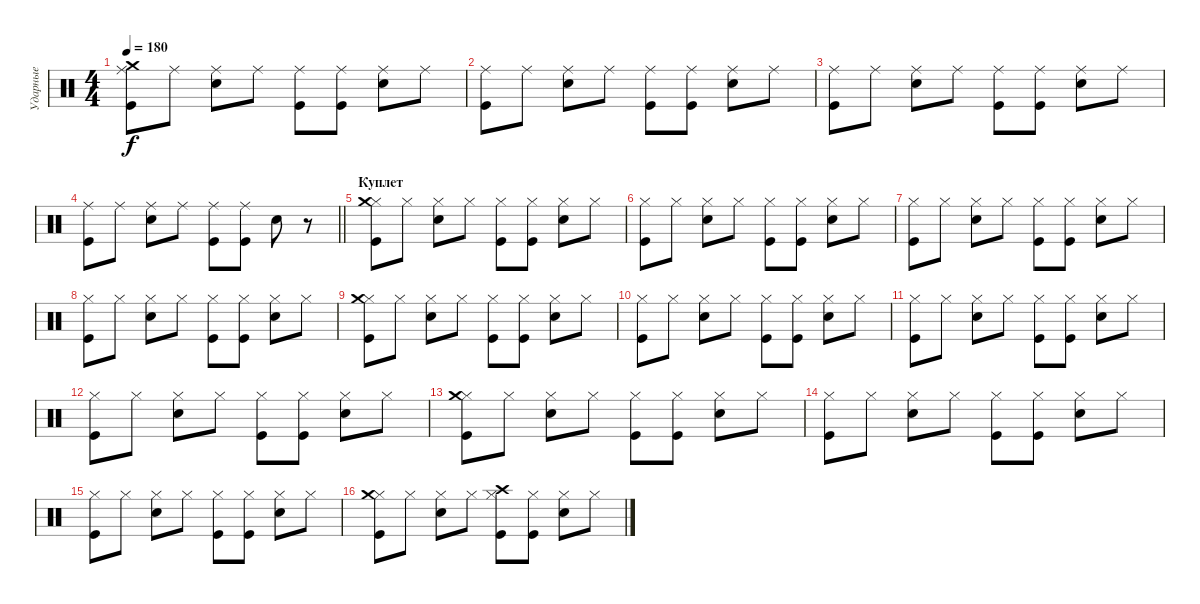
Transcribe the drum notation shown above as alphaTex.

\track ("Ударные" "Ударные") {instrument percussion}
\staff {score}
\articulation defaults
\ts (4 4)
\tempo 180
\clef neutral
\ks c
("Ride (middle)" "Kick (hit)" "Crash medium (hit)").8{dy f} "Ride (middle)".8 ("Ride (middle)" "Electric Snare (hit)").8 "Ride (middle)".8 ("Ride (middle)" "Kick (hit)").8 ("Ride (middle)" "Kick (hit)").8 ("Ride (middle)" "Electric Snare (hit)").8 "Ride (middle)".8 |
("Ride (middle)" "Kick (hit)").8 "Ride (middle)".8 ("Ride (middle)" "Electric Snare (hit)").8 "Ride (middle)".8 ("Ride (middle)" "Kick (hit)").8 ("Ride (middle)" "Kick (hit)").8 ("Ride (middle)" "Electric Snare (hit)").8 "Ride (middle)".8 |
("Ride (middle)" "Kick (hit)").8 "Ride (middle)".8 ("Ride (middle)" "Electric Snare (hit)").8 "Ride (middle)".8 ("Ride (middle)" "Kick (hit)").8 ("Ride (middle)" "Kick (hit)").8 ("Ride (middle)" "Electric Snare (hit)").8 "Ride (middle)".8 |
\barLineRight lightlight
("Ride (middle)" "Kick (hit)").8 "Ride (middle)".8 ("Ride (middle)" "Electric Snare (hit)").8 "Ride (middle)".8 ("Ride (middle)" "Kick (hit)").8 ("Ride (middle)" "Kick (hit)").8 "Electric Snare (hit)".8 r.8 |
\section ("" "Куплет")
("Hi-Hat (closed)" "Kick (hit)" "Crash medium (hit)").8 "Hi-Hat (closed)".8 ("Hi-Hat (closed)" "Electric Snare (hit)").8 "Hi-Hat (closed)".8 ("Hi-Hat (closed)" "Kick (hit)").8 ("Hi-Hat (closed)" "Kick (hit)").8 ("Hi-Hat (closed)" "Electric Snare (hit)").8 "Hi-Hat (closed)".8 |
("Hi-Hat (closed)" "Kick (hit)").8 "Hi-Hat (closed)".8 ("Hi-Hat (closed)" "Electric Snare (hit)").8 "Hi-Hat (closed)".8 ("Hi-Hat (closed)" "Kick (hit)").8 ("Hi-Hat (closed)" "Kick (hit)").8 ("Hi-Hat (closed)" "Electric Snare (hit)").8 "Hi-Hat (closed)".8 |
("Hi-Hat (closed)" "Kick (hit)").8 "Hi-Hat (closed)".8 ("Hi-Hat (closed)" "Electric Snare (hit)").8 "Hi-Hat (closed)".8 ("Hi-Hat (closed)" "Kick (hit)").8 ("Hi-Hat (closed)" "Kick (hit)").8 ("Hi-Hat (closed)" "Electric Snare (hit)").8 "Hi-Hat (closed)".8 |
("Hi-Hat (closed)" "Kick (hit)").8 "Hi-Hat (closed)".8 ("Hi-Hat (closed)" "Electric Snare (hit)").8 "Hi-Hat (closed)".8 ("Hi-Hat (closed)" "Kick (hit)").8 ("Hi-Hat (closed)" "Kick (hit)").8 ("Hi-Hat (closed)" "Electric Snare (hit)").8 "Hi-Hat (closed)".8 |
("Hi-Hat (closed)" "Kick (hit)" "Crash medium (hit)").8 "Hi-Hat (closed)".8 ("Hi-Hat (closed)" "Electric Snare (hit)").8 "Hi-Hat (closed)".8 ("Hi-Hat (closed)" "Kick (hit)").8 ("Hi-Hat (closed)" "Kick (hit)").8 ("Hi-Hat (closed)" "Electric Snare (hit)").8 "Hi-Hat (closed)".8 |
("Hi-Hat (closed)" "Kick (hit)").8 "Hi-Hat (closed)".8 ("Hi-Hat (closed)" "Electric Snare (hit)").8 "Hi-Hat (closed)".8 ("Hi-Hat (closed)" "Kick (hit)").8 ("Hi-Hat (closed)" "Kick (hit)").8 ("Hi-Hat (closed)" "Electric Snare (hit)").8 "Hi-Hat (closed)".8 |
("Hi-Hat (closed)" "Kick (hit)").8 "Hi-Hat (closed)".8 ("Hi-Hat (closed)" "Electric Snare (hit)").8 "Hi-Hat (closed)".8 ("Hi-Hat (closed)" "Kick (hit)").8 ("Hi-Hat (closed)" "Kick (hit)").8 ("Hi-Hat (closed)" "Electric Snare (hit)").8 "Hi-Hat (closed)".8 |
("Hi-Hat (closed)" "Kick (hit)").8 "Hi-Hat (closed)".8 ("Hi-Hat (closed)" "Electric Snare (hit)").8 "Hi-Hat (closed)".8 ("Hi-Hat (closed)" "Kick (hit)").8 ("Hi-Hat (closed)" "Kick (hit)").8 ("Hi-Hat (closed)" "Electric Snare (hit)").8 "Hi-Hat (closed)".8 |
("Hi-Hat (closed)" "Kick (hit)" "Crash medium (hit)").8 "Hi-Hat (closed)".8 ("Hi-Hat (closed)" "Electric Snare (hit)").8 "Hi-Hat (closed)".8 ("Hi-Hat (closed)" "Kick (hit)").8 ("Hi-Hat (closed)" "Kick (hit)").8 ("Hi-Hat (closed)" "Electric Snare (hit)").8 "Hi-Hat (closed)".8 |
("Hi-Hat (closed)" "Kick (hit)").8 "Hi-Hat (closed)".8 ("Hi-Hat (closed)" "Electric Snare (hit)").8 "Hi-Hat (closed)".8 ("Hi-Hat (closed)" "Kick (hit)").8 ("Hi-Hat (closed)" "Kick (hit)").8 ("Hi-Hat (closed)" "Electric Snare (hit)").8 "Hi-Hat (closed)".8 |
("Hi-Hat (closed)" "Kick (hit)").8 "Hi-Hat (closed)".8 ("Hi-Hat (closed)" "Electric Snare (hit)").8 "Hi-Hat (closed)".8 ("Hi-Hat (closed)" "Kick (hit)").8 ("Hi-Hat (closed)" "Kick (hit)").8 ("Hi-Hat (closed)" "Electric Snare (hit)").8 "Hi-Hat (closed)".8 |
("Hi-Hat (closed)" "Kick (hit)" "Crash medium (hit)").8 "Hi-Hat (closed)".8 ("Hi-Hat (closed)" "Electric Snare (hit)").8 "Hi-Hat (closed)".8 ("Hi-Hat (closed)" "Kick (hit)" "Crash high (hit)").8 ("Hi-Hat (closed)" "Kick (hit)").8 ("Hi-Hat (closed)" "Electric Snare (hit)").8 "Hi-Hat (closed)".8
